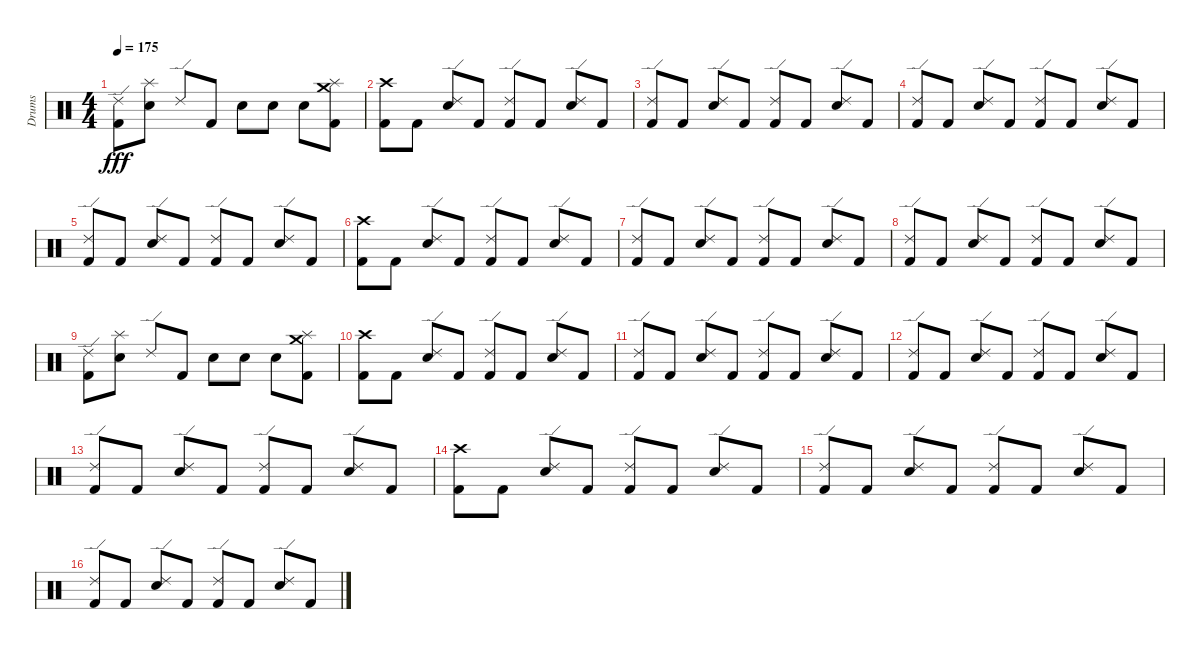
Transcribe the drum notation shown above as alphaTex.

\track ("Drums" "Drums") {instrument percussion}
\staff {score}
\articulation defaults
\ts (4 4)
\tempo 175
\clef neutral
\ks c
("Kick (hit) 2" "Ride (edge) 2").8{dy fff} ("Electric Snare (hit)" "Splash (hit)").8 "Ride (edge) 2".8 "Kick (hit) 2".8 "Electric Snare (hit)".8 "Electric Snare (hit)".8 "Electric Snare (hit)".8 ("Kick (hit) 2" "Splash (hit)" "Crash medium (hit)").8 |
("Kick (hit) 2" "Crash high (hit)").8 "Kick (hit) 2".8 ("Electric Snare (hit)" "Ride (edge) 2").8 "Kick (hit) 2".8 ("Kick (hit) 2" "Ride (edge) 2").8 "Kick (hit) 2".8 ("Electric Snare (hit)" "Ride (edge) 2").8 "Kick (hit) 2".8 |
("Kick (hit) 2" "Ride (edge) 2").8 "Kick (hit) 2".8 ("Electric Snare (hit)" "Ride (edge) 2").8 "Kick (hit) 2".8 ("Kick (hit) 2" "Ride (edge) 2").8 "Kick (hit) 2".8 ("Electric Snare (hit)" "Ride (edge) 2").8 "Kick (hit) 2".8 |
("Kick (hit) 2" "Ride (edge) 2").8 "Kick (hit) 2".8 ("Electric Snare (hit)" "Ride (edge) 2").8 "Kick (hit) 2".8 ("Kick (hit) 2" "Ride (edge) 2").8 "Kick (hit) 2".8 ("Electric Snare (hit)" "Ride (edge) 2").8 "Kick (hit) 2".8 |
("Kick (hit) 2" "Ride (edge) 2").8 "Kick (hit) 2".8 ("Electric Snare (hit)" "Ride (edge) 2").8 "Kick (hit) 2".8 ("Kick (hit) 2" "Ride (edge) 2").8 "Kick (hit) 2".8 ("Electric Snare (hit)" "Ride (edge) 2").8 "Kick (hit) 2".8 |
("Kick (hit) 2" "Crash high (hit)").8 "Kick (hit) 2".8 ("Electric Snare (hit)" "Ride (edge) 2").8 "Kick (hit) 2".8 ("Kick (hit) 2" "Ride (edge) 2").8 "Kick (hit) 2".8 ("Electric Snare (hit)" "Ride (edge) 2").8 "Kick (hit) 2".8 |
("Kick (hit) 2" "Ride (edge) 2").8 "Kick (hit) 2".8 ("Electric Snare (hit)" "Ride (edge) 2").8 "Kick (hit) 2".8 ("Kick (hit) 2" "Ride (edge) 2").8 "Kick (hit) 2".8 ("Electric Snare (hit)" "Ride (edge) 2").8 "Kick (hit) 2".8 |
("Kick (hit) 2" "Ride (edge) 2").8 "Kick (hit) 2".8 ("Electric Snare (hit)" "Ride (edge) 2").8 "Kick (hit) 2".8 ("Kick (hit) 2" "Ride (edge) 2").8 "Kick (hit) 2".8 ("Electric Snare (hit)" "Ride (edge) 2").8 "Kick (hit) 2".8 |
("Kick (hit) 2" "Ride (edge) 2").8 ("Electric Snare (hit)" "Splash (hit)").8 "Ride (edge) 2".8 "Kick (hit) 2".8 "Electric Snare (hit)".8 "Electric Snare (hit)".8 "Electric Snare (hit)".8 ("Kick (hit) 2" "Splash (hit)" "Crash medium (hit)").8 |
("Kick (hit) 2" "Crash high (hit)").8 "Kick (hit) 2".8 ("Electric Snare (hit)" "Ride (edge) 2").8 "Kick (hit) 2".8 ("Kick (hit) 2" "Ride (edge) 2").8 "Kick (hit) 2".8 ("Electric Snare (hit)" "Ride (edge) 2").8 "Kick (hit) 2".8 |
("Kick (hit) 2" "Ride (edge) 2").8 "Kick (hit) 2".8 ("Electric Snare (hit)" "Ride (edge) 2").8 "Kick (hit) 2".8 ("Kick (hit) 2" "Ride (edge) 2").8 "Kick (hit) 2".8 ("Electric Snare (hit)" "Ride (edge) 2").8 "Kick (hit) 2".8 |
("Kick (hit) 2" "Ride (edge) 2").8 "Kick (hit) 2".8 ("Electric Snare (hit)" "Ride (edge) 2").8 "Kick (hit) 2".8 ("Kick (hit) 2" "Ride (edge) 2").8 "Kick (hit) 2".8 ("Electric Snare (hit)" "Ride (edge) 2").8 "Kick (hit) 2".8 |
("Kick (hit) 2" "Ride (edge) 2").8 "Kick (hit) 2".8 ("Electric Snare (hit)" "Ride (edge) 2").8 "Kick (hit) 2".8 ("Kick (hit) 2" "Ride (edge) 2").8 "Kick (hit) 2".8 ("Electric Snare (hit)" "Ride (edge) 2").8 "Kick (hit) 2".8 |
("Kick (hit) 2" "Crash high (hit)").8 "Kick (hit) 2".8 ("Electric Snare (hit)" "Ride (edge) 2").8 "Kick (hit) 2".8 ("Kick (hit) 2" "Ride (edge) 2").8 "Kick (hit) 2".8 ("Electric Snare (hit)" "Ride (edge) 2").8 "Kick (hit) 2".8 |
("Kick (hit) 2" "Ride (edge) 2").8 "Kick (hit) 2".8 ("Electric Snare (hit)" "Ride (edge) 2").8 "Kick (hit) 2".8 ("Kick (hit) 2" "Ride (edge) 2").8 "Kick (hit) 2".8 ("Electric Snare (hit)" "Ride (edge) 2").8 "Kick (hit) 2".8 |
("Kick (hit) 2" "Ride (edge) 2").8 "Kick (hit) 2".8 ("Electric Snare (hit)" "Ride (edge) 2").8 "Kick (hit) 2".8 ("Kick (hit) 2" "Ride (edge) 2").8 "Kick (hit) 2".8 ("Electric Snare (hit)" "Ride (edge) 2").8 "Kick (hit) 2".8
